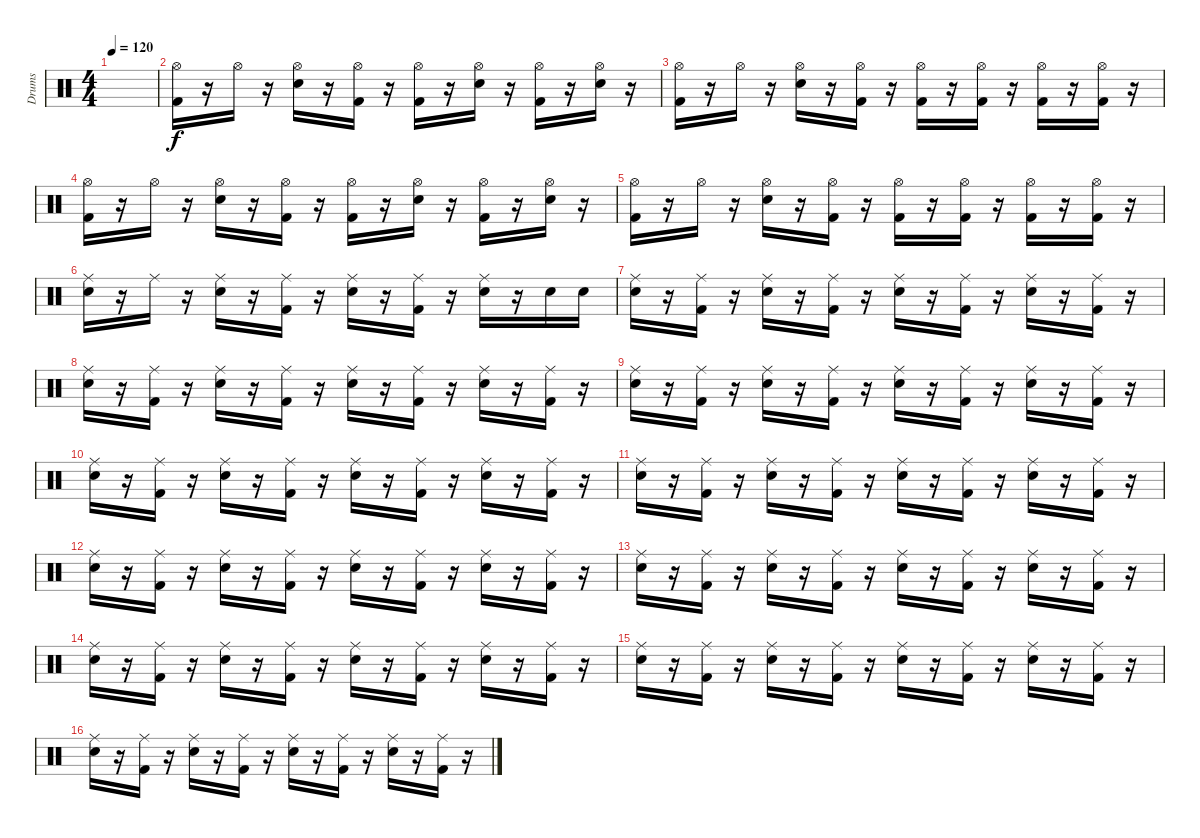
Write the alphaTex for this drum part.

\track ("Drums" "Drums") {instrument percussion}
\staff {score}
\articulation defaults
\ts (4 4)
\tempo 120
\clef neutral
\ks c
|
("Kick (hit) 2" "Hi-Hat (open)").16 r.16 "Hi-Hat (open)".16 r.16 ("Snare (hit) 2" "Hi-Hat (open)").16 r.16 ("Kick (hit) 2" "Hi-Hat (open)").16 r.16 ("Kick (hit) 2" "Hi-Hat (open)").16 r.16 ("Snare (hit) 2" "Hi-Hat (open)").16 r.16 ("Kick (hit) 2" "Hi-Hat (open)").16 r.16 ("Snare (hit) 2" "Hi-Hat (open)").16 r.16 |
("Kick (hit) 2" "Hi-Hat (open)").16 r.16 "Hi-Hat (open)".16 r.16 ("Snare (hit) 2" "Hi-Hat (open)").16 r.16 ("Kick (hit) 2" "Hi-Hat (open)").16 r.16 ("Kick (hit) 2" "Hi-Hat (open)").16 r.16 ("Kick (hit) 2" "Hi-Hat (open)").16 r.16 ("Kick (hit) 2" "Hi-Hat (open)").16 r.16 ("Kick (hit) 2" "Hi-Hat (open)").16 r.16 |
("Kick (hit) 2" "Hi-Hat (open)").16 r.16 "Hi-Hat (open)".16 r.16 ("Snare (hit) 2" "Hi-Hat (open)").16 r.16 ("Kick (hit) 2" "Hi-Hat (open)").16 r.16 ("Kick (hit) 2" "Hi-Hat (open)").16 r.16 ("Snare (hit) 2" "Hi-Hat (open)").16 r.16 ("Kick (hit) 2" "Hi-Hat (open)").16 r.16 ("Snare (hit) 2" "Hi-Hat (open)").16 r.16 |
("Kick (hit) 2" "Hi-Hat (open)").16 r.16 "Hi-Hat (open)".16 r.16 ("Snare (hit) 2" "Hi-Hat (open)").16 r.16 ("Kick (hit) 2" "Hi-Hat (open)").16 r.16 ("Kick (hit) 2" "Hi-Hat (open)").16 r.16 ("Kick (hit) 2" "Hi-Hat (open)").16 r.16 ("Kick (hit) 2" "Hi-Hat (open)").16 r.16 ("Kick (hit) 2" "Hi-Hat (open)").16 r.16 |
("Snare (hit) 2" "Ride (middle)").16 r.16 "Ride (middle)".16 r.16 ("Snare (hit) 2" "Ride (middle)").16 r.16 ("Kick (hit) 2" "Ride (middle)").16 r.16 ("Snare (hit) 2" "Ride (middle)").16 r.16 ("Kick (hit) 2" "Ride (middle)").16 r.16 ("Snare (hit) 2" "Ride (middle)").16 r.16 "Snare (hit) 2".16 "Snare (hit) 2".16 |
("Snare (hit) 2" "Ride (middle)").16 r.16 ("Kick (hit) 2" "Ride (middle)").16 r.16 ("Snare (hit) 2" "Ride (middle)").16 r.16 ("Kick (hit) 2" "Ride (middle)").16 r.16 ("Snare (hit) 2" "Ride (middle)").16 r.16 ("Kick (hit) 2" "Ride (middle)").16 r.16 ("Snare (hit) 2" "Ride (middle)").16 r.16 ("Kick (hit) 2" "Ride (middle)").16 r.16 |
("Snare (hit) 2" "Ride (middle)").16 r.16 ("Kick (hit) 2" "Ride (middle)").16 r.16 ("Snare (hit) 2" "Ride (middle)").16 r.16 ("Kick (hit) 2" "Ride (middle)").16 r.16 ("Snare (hit) 2" "Ride (middle)").16 r.16 ("Kick (hit) 2" "Ride (middle)").16 r.16 ("Snare (hit) 2" "Ride (middle)").16 r.16 ("Kick (hit) 2" "Ride (middle)").16 r.16 |
("Snare (hit) 2" "Ride (middle)").16 r.16 ("Kick (hit) 2" "Ride (middle)").16 r.16 ("Snare (hit) 2" "Ride (middle)").16 r.16 ("Kick (hit) 2" "Ride (middle)").16 r.16 ("Snare (hit) 2" "Ride (middle)").16 r.16 ("Kick (hit) 2" "Ride (middle)").16 r.16 ("Snare (hit) 2" "Ride (middle)").16 r.16 ("Kick (hit) 2" "Ride (middle)").16 r.16 |
("Snare (hit) 2" "Ride (middle)").16 r.16 ("Kick (hit) 2" "Ride (middle)").16 r.16 ("Snare (hit) 2" "Ride (middle)").16 r.16 ("Kick (hit) 2" "Ride (middle)").16 r.16 ("Snare (hit) 2" "Ride (middle)").16 r.16 ("Kick (hit) 2" "Ride (middle)").16 r.16 ("Snare (hit) 2" "Ride (middle)").16 r.16 ("Kick (hit) 2" "Ride (middle)").16 r.16 |
("Snare (hit) 2" "Ride (middle)").16 r.16 ("Kick (hit) 2" "Ride (middle)").16 r.16 ("Snare (hit) 2" "Ride (middle)").16 r.16 ("Kick (hit) 2" "Ride (middle)").16 r.16 ("Snare (hit) 2" "Ride (middle)").16 r.16 ("Kick (hit) 2" "Ride (middle)").16 r.16 ("Snare (hit) 2" "Ride (middle)").16 r.16 ("Kick (hit) 2" "Ride (middle)").16 r.16 |
("Snare (hit) 2" "Ride (middle)").16 r.16 ("Kick (hit) 2" "Ride (middle)").16 r.16 ("Snare (hit) 2" "Ride (middle)").16 r.16 ("Kick (hit) 2" "Ride (middle)").16 r.16 ("Snare (hit) 2" "Ride (middle)").16 r.16 ("Kick (hit) 2" "Ride (middle)").16 r.16 ("Snare (hit) 2" "Ride (middle)").16 r.16 ("Kick (hit) 2" "Ride (middle)").16 r.16 |
("Snare (hit) 2" "Ride (middle)").16 r.16 ("Kick (hit) 2" "Ride (middle)").16 r.16 ("Snare (hit) 2" "Ride (middle)").16 r.16 ("Kick (hit) 2" "Ride (middle)").16 r.16 ("Snare (hit) 2" "Ride (middle)").16 r.16 ("Kick (hit) 2" "Ride (middle)").16 r.16 ("Snare (hit) 2" "Ride (middle)").16 r.16 ("Kick (hit) 2" "Ride (middle)").16 r.16 |
("Snare (hit) 2" "Ride (middle)").16 r.16 ("Kick (hit) 2" "Ride (middle)").16 r.16 ("Snare (hit) 2" "Ride (middle)").16 r.16 ("Kick (hit) 2" "Ride (middle)").16 r.16 ("Snare (hit) 2" "Ride (middle)").16 r.16 ("Kick (hit) 2" "Ride (middle)").16 r.16 ("Snare (hit) 2" "Ride (middle)").16 r.16 ("Kick (hit) 2" "Ride (middle)").16 r.16 |
("Snare (hit) 2" "Ride (middle)").16 r.16 ("Kick (hit) 2" "Ride (middle)").16 r.16 ("Snare (hit) 2" "Ride (middle)").16 r.16 ("Kick (hit) 2" "Ride (middle)").16 r.16 ("Snare (hit) 2" "Ride (middle)").16 r.16 ("Kick (hit) 2" "Ride (middle)").16 r.16 ("Snare (hit) 2" "Ride (middle)").16 r.16 ("Kick (hit) 2" "Ride (middle)").16 r.16 |
("Snare (hit) 2" "Ride (middle)").16 r.16 ("Kick (hit) 2" "Ride (middle)").16 r.16 ("Snare (hit) 2" "Ride (middle)").16 r.16 ("Kick (hit) 2" "Ride (middle)").16 r.16 ("Snare (hit) 2" "Ride (middle)").16 r.16 ("Kick (hit) 2" "Ride (middle)").16 r.16 ("Snare (hit) 2" "Ride (middle)").16 r.16 ("Kick (hit) 2" "Ride (middle)").16 r.16
